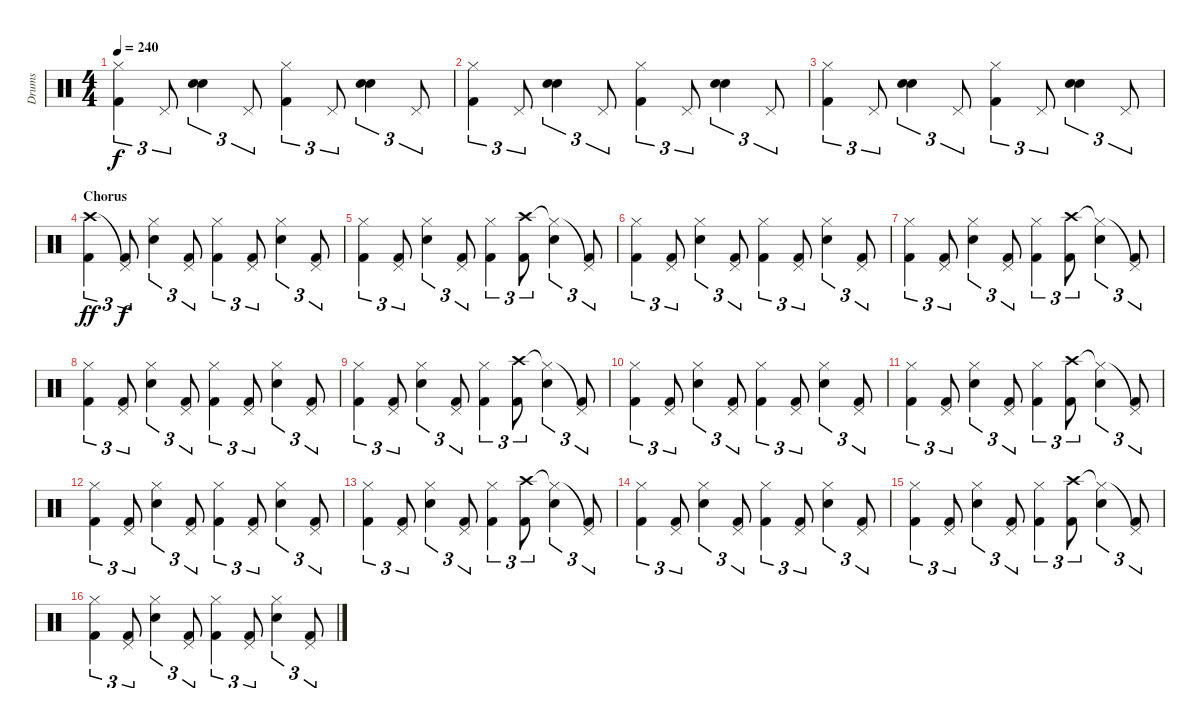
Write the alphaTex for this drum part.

\track ("Drums" "Drums") {instrument percussion}
\staff {score}
\articulation defaults
\ts (4 4)
\tempo 240
\clef neutral
\ks c
("Hi-Hat (closed)" "Kick (hit) 2").4{tu (3 2) dy f} "Pedal Hi-Hat (hit)".8{tu (3 2)} ("Hand Clap (hit)" "Snare (hit) 2").4{tu (3 2)} "Pedal Hi-Hat (hit)".8{tu (3 2)} ("Hi-Hat (closed)" "Kick (hit) 2").4{tu (3 2)} "Pedal Hi-Hat (hit)".8{tu (3 2)} ("Hand Clap (hit)" "Snare (hit) 2").4{tu (3 2)} "Pedal Hi-Hat (hit)".8{tu (3 2)} |
("Hi-Hat (closed)" "Kick (hit) 2").4{tu (3 2)} "Pedal Hi-Hat (hit)".8{tu (3 2)} ("Hand Clap (hit)" "Snare (hit) 2").4{tu (3 2)} "Pedal Hi-Hat (hit)".8{tu (3 2)} ("Hi-Hat (closed)" "Kick (hit) 2").4{tu (3 2)} "Pedal Hi-Hat (hit)".8{tu (3 2)} ("Hand Clap (hit)" "Snare (hit) 2").4{tu (3 2)} "Pedal Hi-Hat (hit)".8{tu (3 2)} |
("Hi-Hat (closed)" "Kick (hit) 2").4{tu (3 2)} "Pedal Hi-Hat (hit)".8{tu (3 2)} ("Hand Clap (hit)" "Snare (hit) 2").4{tu (3 2)} "Pedal Hi-Hat (hit)".8{tu (3 2)} ("Hi-Hat (closed)" "Kick (hit) 2").4{tu (3 2)} "Pedal Hi-Hat (hit)".8{tu (3 2)} ("Hand Clap (hit)" "Snare (hit) 2").4{tu (3 2)} "Pedal Hi-Hat (hit)".8{tu (3 2)} |
\section ("" "Chorus")
("Crash high (hit)" "Kick (hit) 2").4{tu (3 2) dy ff} ("Pedal Hi-Hat (hit)"{t} "Kick (hit) 2").8{tu (3 2) dy f} ("Hi-Hat (closed)" "Snare (hit) 2").4{tu (3 2)} ("Pedal Hi-Hat (hit)" "Kick (hit) 2").8{tu (3 2)} ("Hi-Hat (closed)" "Kick (hit) 2").4{tu (3 2)} ("Pedal Hi-Hat (hit)" "Kick (hit) 2").8{tu (3 2)} ("Hi-Hat (closed)" "Snare (hit) 2").4{tu (3 2)} ("Pedal Hi-Hat (hit)" "Kick (hit) 2").8{tu (3 2)} |
("Hi-Hat (closed)" "Kick (hit) 2").4{tu (3 2)} ("Pedal Hi-Hat (hit)" "Kick (hit) 2").8{tu (3 2)} ("Hi-Hat (closed)" "Snare (hit) 2").4{tu (3 2)} ("Pedal Hi-Hat (hit)" "Kick (hit) 2").8{tu (3 2)} ("Hi-Hat (closed)" "Kick (hit) 2").4{tu (3 2)} ("Crash high (hit)" "Kick (hit) 2").8{tu (3 2)} ("Hi-Hat (closed)"{t} "Snare (hit) 2").4{tu (3 2)} ("Pedal Hi-Hat (hit)"{t} "Kick (hit) 2").8{tu (3 2)} |
("Hi-Hat (closed)" "Kick (hit) 2").4{tu (3 2)} ("Pedal Hi-Hat (hit)" "Kick (hit) 2").8{tu (3 2)} ("Hi-Hat (closed)" "Snare (hit) 2").4{tu (3 2)} ("Pedal Hi-Hat (hit)" "Kick (hit) 2").8{tu (3 2)} ("Hi-Hat (closed)" "Kick (hit) 2").4{tu (3 2)} ("Pedal Hi-Hat (hit)" "Kick (hit) 2").8{tu (3 2)} ("Hi-Hat (closed)" "Snare (hit) 2").4{tu (3 2)} ("Pedal Hi-Hat (hit)" "Kick (hit) 2").8{tu (3 2)} |
("Hi-Hat (closed)" "Kick (hit) 2").4{tu (3 2)} ("Pedal Hi-Hat (hit)" "Kick (hit) 2").8{tu (3 2)} ("Hi-Hat (closed)" "Snare (hit) 2").4{tu (3 2)} ("Pedal Hi-Hat (hit)" "Kick (hit) 2").8{tu (3 2)} ("Hi-Hat (closed)" "Kick (hit) 2").4{tu (3 2)} ("Crash high (hit)" "Kick (hit) 2").8{tu (3 2)} ("Hi-Hat (closed)"{t} "Snare (hit) 2").4{tu (3 2)} ("Pedal Hi-Hat (hit)"{t} "Kick (hit) 2").8{tu (3 2)} |
("Hi-Hat (closed)" "Kick (hit) 2").4{tu (3 2)} ("Pedal Hi-Hat (hit)" "Kick (hit) 2").8{tu (3 2)} ("Hi-Hat (closed)" "Snare (hit) 2").4{tu (3 2)} ("Pedal Hi-Hat (hit)" "Kick (hit) 2").8{tu (3 2)} ("Hi-Hat (closed)" "Kick (hit) 2").4{tu (3 2)} ("Pedal Hi-Hat (hit)" "Kick (hit) 2").8{tu (3 2)} ("Hi-Hat (closed)" "Snare (hit) 2").4{tu (3 2)} ("Pedal Hi-Hat (hit)" "Kick (hit) 2").8{tu (3 2)} |
("Hi-Hat (closed)" "Kick (hit) 2").4{tu (3 2)} ("Pedal Hi-Hat (hit)" "Kick (hit) 2").8{tu (3 2)} ("Hi-Hat (closed)" "Snare (hit) 2").4{tu (3 2)} ("Pedal Hi-Hat (hit)" "Kick (hit) 2").8{tu (3 2)} ("Hi-Hat (closed)" "Kick (hit) 2").4{tu (3 2)} ("Crash high (hit)" "Kick (hit) 2").8{tu (3 2)} ("Hi-Hat (closed)"{t} "Snare (hit) 2").4{tu (3 2)} ("Pedal Hi-Hat (hit)"{t} "Kick (hit) 2").8{tu (3 2)} |
("Hi-Hat (closed)" "Kick (hit) 2").4{tu (3 2)} ("Pedal Hi-Hat (hit)" "Kick (hit) 2").8{tu (3 2)} ("Hi-Hat (closed)" "Snare (hit) 2").4{tu (3 2)} ("Pedal Hi-Hat (hit)" "Kick (hit) 2").8{tu (3 2)} ("Hi-Hat (closed)" "Kick (hit) 2").4{tu (3 2)} ("Pedal Hi-Hat (hit)" "Kick (hit) 2").8{tu (3 2)} ("Hi-Hat (closed)" "Snare (hit) 2").4{tu (3 2)} ("Pedal Hi-Hat (hit)" "Kick (hit) 2").8{tu (3 2)} |
("Hi-Hat (closed)" "Kick (hit) 2").4{tu (3 2)} ("Pedal Hi-Hat (hit)" "Kick (hit) 2").8{tu (3 2)} ("Hi-Hat (closed)" "Snare (hit) 2").4{tu (3 2)} ("Pedal Hi-Hat (hit)" "Kick (hit) 2").8{tu (3 2)} ("Hi-Hat (closed)" "Kick (hit) 2").4{tu (3 2)} ("Crash high (hit)" "Kick (hit) 2").8{tu (3 2)} ("Hi-Hat (closed)"{t} "Snare (hit) 2").4{tu (3 2)} ("Pedal Hi-Hat (hit)"{t} "Kick (hit) 2").8{tu (3 2)} |
("Hi-Hat (closed)" "Kick (hit) 2").4{tu (3 2)} ("Pedal Hi-Hat (hit)" "Kick (hit) 2").8{tu (3 2)} ("Hi-Hat (closed)" "Snare (hit) 2").4{tu (3 2)} ("Pedal Hi-Hat (hit)" "Kick (hit) 2").8{tu (3 2)} ("Hi-Hat (closed)" "Kick (hit) 2").4{tu (3 2)} ("Pedal Hi-Hat (hit)" "Kick (hit) 2").8{tu (3 2)} ("Hi-Hat (closed)" "Snare (hit) 2").4{tu (3 2)} ("Pedal Hi-Hat (hit)" "Kick (hit) 2").8{tu (3 2)} |
("Hi-Hat (closed)" "Kick (hit) 2").4{tu (3 2)} ("Pedal Hi-Hat (hit)" "Kick (hit) 2").8{tu (3 2)} ("Hi-Hat (closed)" "Snare (hit) 2").4{tu (3 2)} ("Pedal Hi-Hat (hit)" "Kick (hit) 2").8{tu (3 2)} ("Hi-Hat (closed)" "Kick (hit) 2").4{tu (3 2)} ("Crash high (hit)" "Kick (hit) 2").8{tu (3 2)} ("Hi-Hat (closed)"{t} "Snare (hit) 2").4{tu (3 2)} ("Pedal Hi-Hat (hit)"{t} "Kick (hit) 2").8{tu (3 2)} |
("Hi-Hat (closed)" "Kick (hit) 2").4{tu (3 2)} ("Pedal Hi-Hat (hit)" "Kick (hit) 2").8{tu (3 2)} ("Hi-Hat (closed)" "Snare (hit) 2").4{tu (3 2)} ("Pedal Hi-Hat (hit)" "Kick (hit) 2").8{tu (3 2)} ("Hi-Hat (closed)" "Kick (hit) 2").4{tu (3 2)} ("Pedal Hi-Hat (hit)" "Kick (hit) 2").8{tu (3 2)} ("Hi-Hat (closed)" "Snare (hit) 2").4{tu (3 2)} ("Pedal Hi-Hat (hit)" "Kick (hit) 2").8{tu (3 2)} |
("Hi-Hat (closed)" "Kick (hit) 2").4{tu (3 2)} ("Pedal Hi-Hat (hit)" "Kick (hit) 2").8{tu (3 2)} ("Hi-Hat (closed)" "Snare (hit) 2").4{tu (3 2)} ("Pedal Hi-Hat (hit)" "Kick (hit) 2").8{tu (3 2)} ("Hi-Hat (closed)" "Kick (hit) 2").4{tu (3 2)} ("Crash high (hit)" "Kick (hit) 2").8{tu (3 2)} ("Hi-Hat (closed)"{t} "Snare (hit) 2").4{tu (3 2)} ("Pedal Hi-Hat (hit)"{t} "Kick (hit) 2").8{tu (3 2)} |
("Hi-Hat (closed)" "Kick (hit) 2").4{tu (3 2)} ("Pedal Hi-Hat (hit)" "Kick (hit) 2").8{tu (3 2)} ("Hi-Hat (closed)" "Snare (hit) 2").4{tu (3 2)} ("Pedal Hi-Hat (hit)" "Kick (hit) 2").8{tu (3 2)} ("Hi-Hat (closed)" "Kick (hit) 2").4{tu (3 2)} ("Pedal Hi-Hat (hit)" "Kick (hit) 2").8{tu (3 2)} ("Hi-Hat (closed)" "Snare (hit) 2").4{tu (3 2)} ("Pedal Hi-Hat (hit)" "Kick (hit) 2").8{tu (3 2)}
